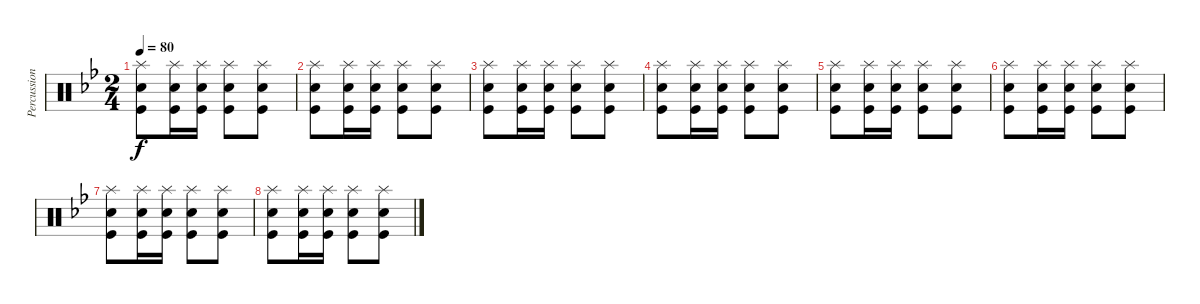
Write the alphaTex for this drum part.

\track ("Percussion" "Percussion") {instrument percussion}
\staff {score}
\articulation defaults
\ts (2 4)
\tempo 80
\clef neutral
\ks bb
("Splash (hit)" "Kick (hit)" "Snare (hit) 2").8{dy f} ("Splash (hit)" "Kick (hit)" "Snare (hit) 2").16 ("Splash (hit)" "Kick (hit)" "Snare (hit) 2").16 ("Splash (hit)" "Kick (hit)" "Snare (hit) 2").8 ("Splash (hit)" "Kick (hit)" "Snare (hit) 2").8 |
("Splash (hit)" "Kick (hit)" "Snare (hit) 2").8 ("Splash (hit)" "Kick (hit)" "Snare (hit) 2").16 ("Splash (hit)" "Kick (hit)" "Snare (hit) 2").16 ("Splash (hit)" "Kick (hit)" "Snare (hit) 2").8 ("Splash (hit)" "Kick (hit)" "Snare (hit) 2").8 |
("Splash (hit)" "Kick (hit)" "Snare (hit) 2").8 ("Splash (hit)" "Kick (hit)" "Snare (hit) 2").16 ("Splash (hit)" "Kick (hit)" "Snare (hit) 2").16 ("Splash (hit)" "Kick (hit)" "Snare (hit) 2").8 ("Splash (hit)" "Kick (hit)" "Snare (hit) 2").8 |
("Splash (hit)" "Kick (hit)" "Snare (hit) 2").8 ("Splash (hit)" "Kick (hit)" "Snare (hit) 2").16 ("Splash (hit)" "Kick (hit)" "Snare (hit) 2").16 ("Splash (hit)" "Kick (hit)" "Snare (hit) 2").8 ("Splash (hit)" "Kick (hit)" "Snare (hit) 2").8 |
("Splash (hit)" "Kick (hit)" "Snare (hit) 2").8 ("Splash (hit)" "Kick (hit)" "Snare (hit) 2").16 ("Splash (hit)" "Kick (hit)" "Snare (hit) 2").16 ("Splash (hit)" "Kick (hit)" "Snare (hit) 2").8 ("Splash (hit)" "Kick (hit)" "Snare (hit) 2").8 |
("Splash (hit)" "Kick (hit)" "Snare (hit) 2").8 ("Splash (hit)" "Kick (hit)" "Snare (hit) 2").16 ("Splash (hit)" "Kick (hit)" "Snare (hit) 2").16 ("Splash (hit)" "Kick (hit)" "Snare (hit) 2").8 ("Splash (hit)" "Kick (hit)" "Snare (hit) 2").8 |
("Splash (hit)" "Kick (hit)" "Snare (hit) 2").8 ("Splash (hit)" "Kick (hit)" "Snare (hit) 2").16 ("Splash (hit)" "Kick (hit)" "Snare (hit) 2").16 ("Splash (hit)" "Kick (hit)" "Snare (hit) 2").8 ("Splash (hit)" "Kick (hit)" "Snare (hit) 2").8 |
("Splash (hit)" "Kick (hit)" "Snare (hit) 2").8 ("Splash (hit)" "Kick (hit)" "Snare (hit) 2").16 ("Splash (hit)" "Kick (hit)" "Snare (hit) 2").16 ("Splash (hit)" "Kick (hit)" "Snare (hit) 2").8 ("Splash (hit)" "Kick (hit)" "Snare (hit) 2").8
